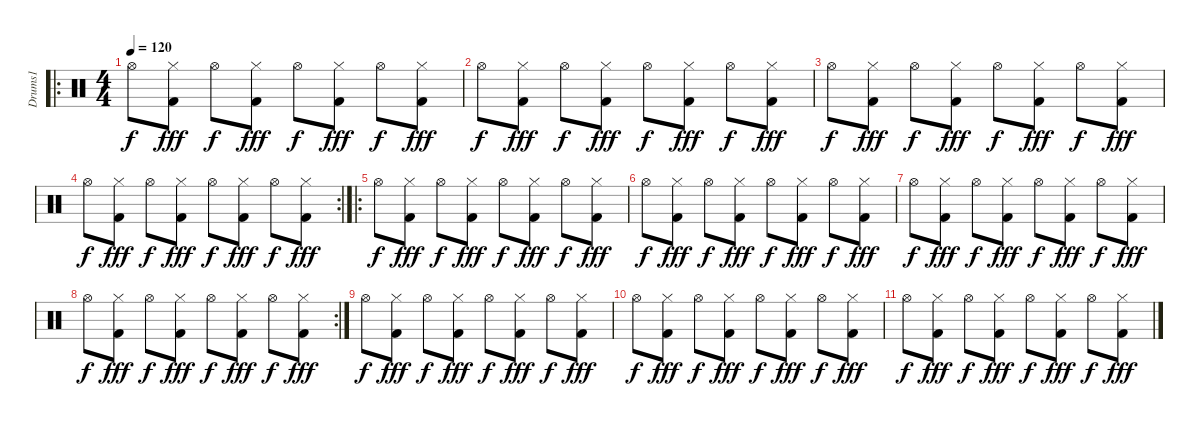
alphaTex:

\track ("Drums1" "Drums1") {instrument percussion}
\staff {score}
\articulation defaults
\ro
\ts (4 4)
\tempo 120
\clef neutral
\ks c "Hi-Hat (open)".8{dy f}
("Kick (hit) 2" "Hi-Hat (closed)").8{dy fff} "Hi-Hat (open)".8{dy f} ("Hi-Hat (closed)" "Kick (hit) 2").8{dy fff} "Hi-Hat (open)".8{dy f} ("Kick (hit) 2" "Hi-Hat (closed)").8{dy fff} "Hi-Hat (open)".8{dy f} ("Kick (hit) 2" "Hi-Hat (closed)").8{dy fff} |
"Hi-Hat (open)".8{dy f} ("Kick (hit) 2" "Hi-Hat (closed)").8{dy fff} "Hi-Hat (open)".8{dy f} ("Hi-Hat (closed)" "Kick (hit) 2").8{dy fff} "Hi-Hat (open)".8{dy f} ("Kick (hit) 2" "Hi-Hat (closed)").8{dy fff} "Hi-Hat (open)".8{dy f} ("Kick (hit) 2" "Hi-Hat (closed)").8{dy fff} |
"Hi-Hat (open)".8{dy f} ("Kick (hit) 2" "Hi-Hat (closed)").8{dy fff} "Hi-Hat (open)".8{dy f} ("Hi-Hat (closed)" "Kick (hit) 2").8{dy fff} "Hi-Hat (open)".8{dy f} ("Kick (hit) 2" "Hi-Hat (closed)").8{dy fff} "Hi-Hat (open)".8{dy f} ("Kick (hit) 2" "Hi-Hat (closed)").8{dy fff} |
\rc 2 "Hi-Hat (open)".8{dy f}
("Kick (hit) 2" "Hi-Hat (closed)").8{dy fff} "Hi-Hat (open)".8{dy f} ("Hi-Hat (closed)" "Kick (hit) 2").8{dy fff} "Hi-Hat (open)".8{dy f} ("Kick (hit) 2" "Hi-Hat (closed)").8{dy fff} "Hi-Hat (open)".8{dy f} ("Kick (hit) 2" "Hi-Hat (closed)").8{dy fff} |
\ro "Hi-Hat (open)".8{dy f}
("Kick (hit) 2" "Hi-Hat (closed)").8{dy fff} "Hi-Hat (open)".8{dy f} ("Hi-Hat (closed)" "Kick (hit) 2").8{dy fff} "Hi-Hat (open)".8{dy f} ("Kick (hit) 2" "Hi-Hat (closed)").8{dy fff} "Hi-Hat (open)".8{dy f} ("Kick (hit) 2" "Hi-Hat (closed)").8{dy fff} |
"Hi-Hat (open)".8{dy f} ("Kick (hit) 2" "Hi-Hat (closed)").8{dy fff} "Hi-Hat (open)".8{dy f} ("Hi-Hat (closed)" "Kick (hit) 2").8{dy fff} "Hi-Hat (open)".8{dy f} ("Kick (hit) 2" "Hi-Hat (closed)").8{dy fff} "Hi-Hat (open)".8{dy f} ("Kick (hit) 2" "Hi-Hat (closed)").8{dy fff} |
"Hi-Hat (open)".8{dy f} ("Kick (hit) 2" "Hi-Hat (closed)").8{dy fff} "Hi-Hat (open)".8{dy f} ("Hi-Hat (closed)" "Kick (hit) 2").8{dy fff} "Hi-Hat (open)".8{dy f} ("Kick (hit) 2" "Hi-Hat (closed)").8{dy fff} "Hi-Hat (open)".8{dy f} ("Kick (hit) 2" "Hi-Hat (closed)").8{dy fff} |
\rc 2 "Hi-Hat (open)".8{dy f}
("Kick (hit) 2" "Hi-Hat (closed)").8{dy fff} "Hi-Hat (open)".8{dy f} ("Hi-Hat (closed)" "Kick (hit) 2").8{dy fff} "Hi-Hat (open)".8{dy f} ("Kick (hit) 2" "Hi-Hat (closed)").8{dy fff} "Hi-Hat (open)".8{dy f} ("Kick (hit) 2" "Hi-Hat (closed)").8{dy fff} |
"Hi-Hat (open)".8{dy f volume 8} ("Kick (hit) 2" "Hi-Hat (closed)").8{dy fff} "Hi-Hat (open)".8{dy f volume 7} ("Hi-Hat (closed)" "Kick (hit) 2").8{dy fff} "Hi-Hat (open)".8{dy f volume 6} ("Kick (hit) 2" "Hi-Hat (closed)").8{dy fff} "Hi-Hat (open)".8{dy f volume 5} ("Kick (hit) 2" "Hi-Hat (closed)").8{dy fff} |
"Hi-Hat (open)".8{dy f volume 4} ("Kick (hit) 2" "Hi-Hat (closed)").8{dy fff} "Hi-Hat (open)".8{dy f volume 3} ("Hi-Hat (closed)" "Kick (hit) 2").8{dy fff} "Hi-Hat (open)".8{dy f volume 2} ("Kick (hit) 2" "Hi-Hat (closed)").8{dy fff} "Hi-Hat (open)".8{dy f volume 1} ("Kick (hit) 2" "Hi-Hat (closed)").8{dy fff} |
"Hi-Hat (open)".8{dy f volume 0} ("Kick (hit) 2" "Hi-Hat (closed)").8{dy fff} "Hi-Hat (open)".8{dy f} ("Hi-Hat (closed)" "Kick (hit) 2").8{dy fff} "Hi-Hat (open)".8{dy f} ("Kick (hit) 2" "Hi-Hat (closed)").8{dy fff} "Hi-Hat (open)".8{dy f} ("Kick (hit) 2" "Hi-Hat (closed)").8{dy fff}
